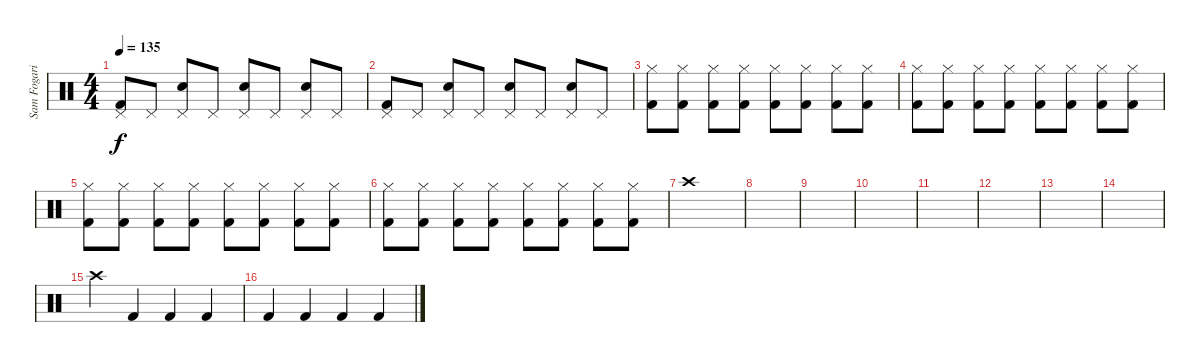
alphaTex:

\track ("Sam Fogarino" "Sam Fogari") {instrument percussion}
\staff {score}
\articulation defaults
\ts (4 4)
\tempo 135
\clef neutral
\ks c
("Kick (hit) 2" "Pedal Hi-Hat (hit)").8{dy f} "Pedal Hi-Hat (hit)".8 ("Electric Snare (hit)" "Pedal Hi-Hat (hit)").8 "Pedal Hi-Hat (hit)".8 ("Electric Snare (hit)" "Pedal Hi-Hat (hit)").8 "Pedal Hi-Hat (hit)".8 ("Electric Snare (hit)" "Pedal Hi-Hat (hit)").8 "Pedal Hi-Hat (hit)".8 |
("Kick (hit) 2" "Pedal Hi-Hat (hit)").8 "Pedal Hi-Hat (hit)".8 ("Electric Snare (hit)" "Pedal Hi-Hat (hit)").8 "Pedal Hi-Hat (hit)".8 ("Electric Snare (hit)" "Pedal Hi-Hat (hit)").8 "Pedal Hi-Hat (hit)".8 ("Electric Snare (hit)" "Pedal Hi-Hat (hit)").8 "Pedal Hi-Hat (hit)".8 |
("Kick (hit) 2" "Hi-Hat (closed)").8 ("Kick (hit) 2" "Hi-Hat (closed)").8 ("Kick (hit) 2" "Hi-Hat (closed)").8 ("Kick (hit) 2" "Hi-Hat (closed)").8 ("Kick (hit) 2" "Hi-Hat (closed)").8 ("Kick (hit) 2" "Hi-Hat (closed)").8 ("Kick (hit) 2" "Hi-Hat (closed)").8 ("Kick (hit) 2" "Hi-Hat (closed)").8 |
("Kick (hit) 2" "Hi-Hat (closed)").8 ("Kick (hit) 2" "Hi-Hat (closed)").8 ("Kick (hit) 2" "Hi-Hat (closed)").8 ("Kick (hit) 2" "Hi-Hat (closed)").8 ("Kick (hit) 2" "Hi-Hat (closed)").8 ("Kick (hit) 2" "Hi-Hat (closed)").8 ("Kick (hit) 2" "Hi-Hat (closed)").8 ("Kick (hit) 2" "Hi-Hat (closed)").8 |
("Kick (hit) 2" "Hi-Hat (closed)").8 ("Kick (hit) 2" "Hi-Hat (closed)").8 ("Kick (hit) 2" "Hi-Hat (closed)").8 ("Kick (hit) 2" "Hi-Hat (closed)").8 ("Kick (hit) 2" "Hi-Hat (closed)").8 ("Kick (hit) 2" "Hi-Hat (closed)").8 ("Kick (hit) 2" "Hi-Hat (closed)").8 ("Kick (hit) 2" "Hi-Hat (closed)").8 |
("Kick (hit) 2" "Hi-Hat (closed)").8 ("Kick (hit) 2" "Hi-Hat (closed)").8 ("Kick (hit) 2" "Hi-Hat (closed)").8 ("Kick (hit) 2" "Hi-Hat (closed)").8 ("Kick (hit) 2" "Hi-Hat (closed)").8 ("Kick (hit) 2" "Hi-Hat (closed)").8 ("Kick (hit) 2" "Hi-Hat (closed)").8 ("Kick (hit) 2" "Hi-Hat (closed)").8 |
"Crash high (hit)".1 |
|
|
|
|
|
|
|
"Crash high (hit)".4 "Kick (hit) 2".4 "Kick (hit) 2".4 "Kick (hit) 2".4 |
"Kick (hit) 2".4 "Kick (hit) 2".4 "Kick (hit) 2".4 "Kick (hit) 2".4
